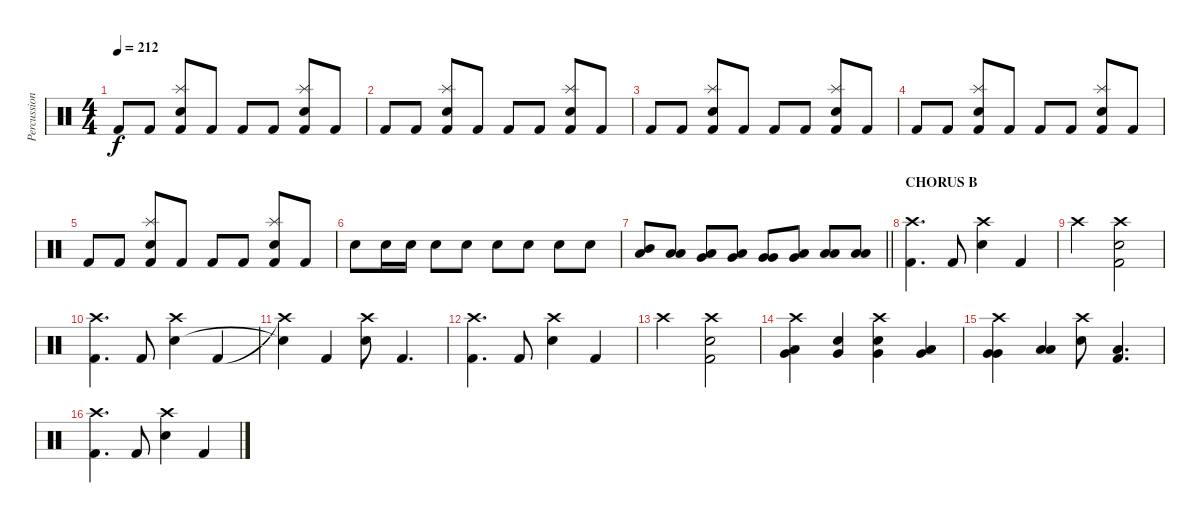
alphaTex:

\track ("Percussions" "Percussion") {instrument percussion}
\staff {score}
\articulation defaults
\ts (4 4)
\tempo 212
\clef neutral
\ks c "Kick (hit) 2".8{dy f} "Kick (hit) 2".8
("Splash (hit)" "Snare (hit) 2" "Kick (hit) 2").8 "Kick (hit) 2".8 "Kick (hit) 2".8 "Kick (hit) 2".8 ("Splash (hit)" "Snare (hit) 2" "Kick (hit) 2").8 "Kick (hit) 2".8 |
"Kick (hit) 2".8 "Kick (hit) 2".8 ("Splash (hit)" "Snare (hit) 2" "Kick (hit) 2").8 "Kick (hit) 2".8 "Kick (hit) 2".8 "Kick (hit) 2".8 ("Splash (hit)" "Snare (hit) 2" "Kick (hit) 2").8 "Kick (hit) 2".8 |
"Kick (hit) 2".8 "Kick (hit) 2".8 ("Splash (hit)" "Snare (hit) 2" "Kick (hit) 2").8 "Kick (hit) 2".8 "Kick (hit) 2".8 "Kick (hit) 2".8 ("Splash (hit)" "Snare (hit) 2" "Kick (hit) 2").8 "Kick (hit) 2".8 |
"Kick (hit) 2".8 "Kick (hit) 2".8 ("Splash (hit)" "Snare (hit) 2" "Kick (hit) 2").8 "Kick (hit) 2".8 "Kick (hit) 2".8 "Kick (hit) 2".8 ("Splash (hit)" "Snare (hit) 2" "Kick (hit) 2").8 "Kick (hit) 2".8 |
"Kick (hit) 2".8 "Kick (hit) 2".8 ("Splash (hit)" "Snare (hit) 2" "Kick (hit) 2").8 "Kick (hit) 2".8 "Kick (hit) 2".8 "Kick (hit) 2".8 ("Splash (hit)" "Snare (hit) 2" "Kick (hit) 2").8 "Kick (hit) 2".8 |
"Snare (hit) 2".8 "Snare (hit) 2".16 "Snare (hit) 2".16 "Snare (hit) 2".8 "Snare (hit) 2".8 "Snare (hit) 2".8 "Snare (hit) 2".8 "Snare (hit) 2".8 "Snare (hit) 2".8 |
\barLineRight lightlight
("Mid Tom (hit)" "Low Tom (hit)").8 ("Low Tom (hit)" "Low Tom (hit)").8 ("Low Tom (hit)" "Very Low Tom (hit)").8 ("Low Tom (hit)" "Very Low Tom (hit)").8 ("Very Low Tom (hit)" "Very Low Tom (hit)").8 ("Very Low Tom (hit)" "Low Floor Tom (hit)").8 ("Low Floor Tom (hit)" "Low Floor Tom (hit)").8 ("Low Floor Tom (hit)" "Low Floor Tom (hit)").8 |
\section ("" "CHORUS B")
("Crash high (hit)" "Kick (hit) 2").4{d} "Kick (hit) 2".8 ("Crash high (hit)" "Snare (hit) 2").4 "Kick (hit) 2".4 |
"Crash high (hit)".2 ("Crash high (hit)" "Snare (hit) 2" "Kick (hit) 2").2 |
("Crash high (hit)" "Kick (hit) 2").4{d} "Kick (hit) 2".8 ("Crash high (hit)" "Snare (hit) 2").4 "Kick (hit) 2".4 |
("Crash high (hit)"{t} "Snare (hit)"{t}).4 "Kick (hit) 2".4 ("Crash high (hit)" "Snare (hit) 2").8 "Kick (hit) 2".4{d} |
("Crash high (hit)" "Kick (hit) 2").4{d} "Kick (hit) 2".8 ("Crash high (hit)" "Snare (hit) 2").4 "Kick (hit) 2".4 |
"Crash high (hit)".2 ("Crash high (hit)" "Snare (hit) 2" "Kick (hit) 2").2 |
("Crash high (hit)" "Low Tom (hit)" "Very Low Tom (hit)").4 ("Snare (hit) 2" "Very Low Tom (hit)").4 ("Crash high (hit)" "Snare (hit) 2" "Very Low Tom (hit)").4 ("Low Tom (hit)" "Very Low Tom (hit)").4 |
("Crash high (hit)" "Very Low Tom (hit)" "Very Low Tom (hit)").4 ("Low Floor Tom (hit)" "Low Floor Tom (hit)").4 ("Crash high (hit)" "Snare (hit) 2").8 ("Low Floor Tom (hit)" "Kick (hit) 2").4{d} |
("Crash high (hit)" "Kick (hit) 2").4{d} "Kick (hit) 2".8 ("Crash high (hit)" "Snare (hit) 2").4 "Kick (hit) 2".4
